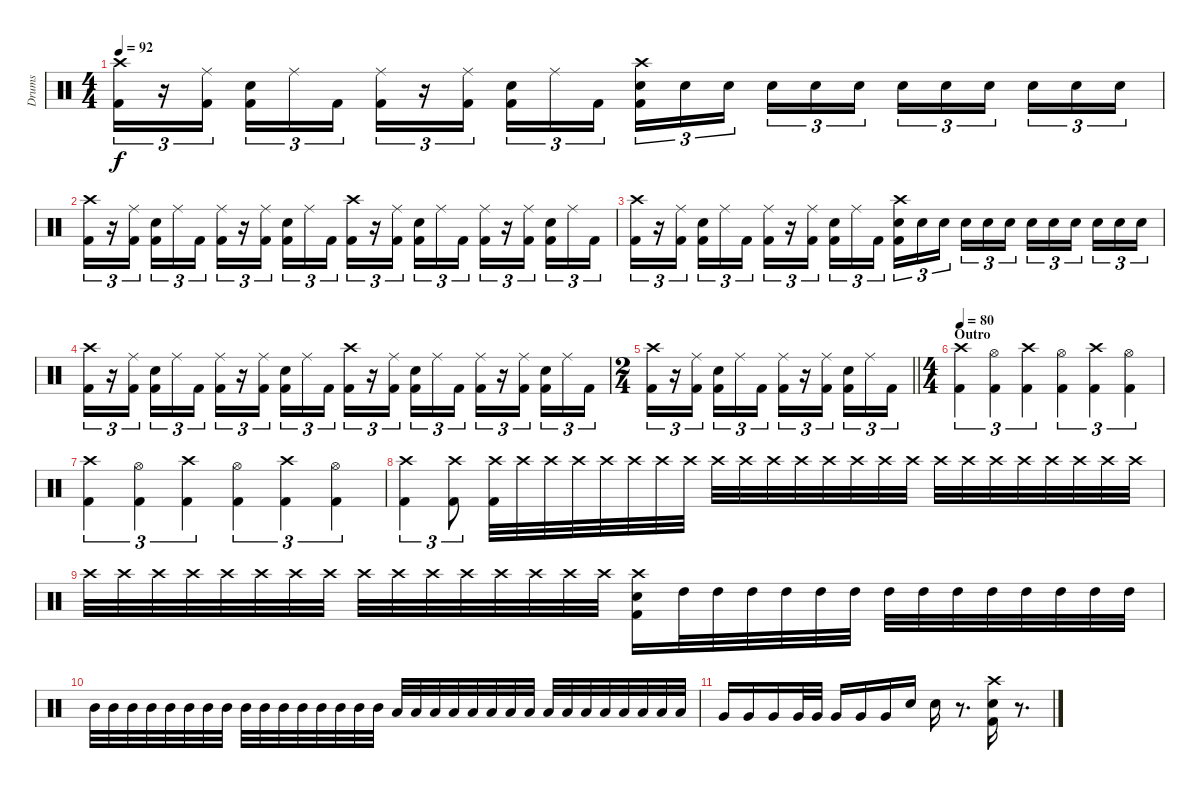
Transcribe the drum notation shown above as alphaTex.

\track ("Drums" "Drums") {instrument percussion}
\staff {score}
\articulation defaults
\ts (4 4)
\tempo 92
\clef neutral
\ks c
("Crash high (hit)" "Kick (hit) 2").16{tu (3 2) dy f} r.16{tu (3 2)} ("Ride (middle)" "Kick (hit) 2").16{tu (3 2) beam splitsecondary} ("Snare (hit) 2" "Kick (hit) 2").16{tu (3 2)} "Ride (middle)".16{tu (3 2)} "Kick (hit) 2".16{tu (3 2)} ("Ride (middle)" "Kick (hit) 2").16{tu (3 2)} r.16{tu (3 2)} ("Ride (middle)" "Kick (hit) 2").16{tu (3 2) beam splitsecondary} ("Snare (hit) 2" "Kick (hit) 2").16{tu (3 2)} "Ride (middle)".16{tu (3 2)} "Kick (hit) 2".16{tu (3 2)} ("Crash high (hit)" "Snare (hit) 2" "Kick (hit) 2").16{tu (3 2)} "Snare (hit) 2".16{tu (3 2)} "Snare (hit) 2".16{tu (3 2) beam splitsecondary} "Snare (hit) 2".16{tu (3 2)} "Snare (hit) 2".16{tu (3 2)} "Snare (hit) 2".16{tu (3 2)} "Snare (hit) 2".16{tu (3 2)} "Snare (hit) 2".16{tu (3 2)} "Snare (hit) 2".16{tu (3 2) beam splitsecondary} "Snare (hit) 2".16{tu (3 2)} "Snare (hit) 2".16{tu (3 2)} "Snare (hit) 2".16{tu (3 2)} |
("Crash high (hit)" "Kick (hit) 2").16{tu (3 2)} r.16{tu (3 2)} ("Ride (middle)" "Kick (hit) 2").16{tu (3 2) beam splitsecondary} ("Snare (hit) 2" "Kick (hit) 2").16{tu (3 2)} "Ride (middle)".16{tu (3 2)} "Kick (hit) 2".16{tu (3 2)} ("Ride (middle)" "Kick (hit) 2").16{tu (3 2)} r.16{tu (3 2)} ("Ride (middle)" "Kick (hit) 2").16{tu (3 2) beam splitsecondary} ("Snare (hit) 2" "Kick (hit) 2").16{tu (3 2)} "Ride (middle)".16{tu (3 2)} "Kick (hit) 2".16{tu (3 2)} ("Crash high (hit)" "Kick (hit) 2").16{tu (3 2)} r.16{tu (3 2)} ("Ride (middle)" "Kick (hit) 2").16{tu (3 2) beam splitsecondary} ("Snare (hit) 2" "Kick (hit) 2").16{tu (3 2)} "Ride (middle)".16{tu (3 2)} "Kick (hit) 2".16{tu (3 2)} ("Ride (middle)" "Kick (hit) 2").16{tu (3 2)} r.16{tu (3 2)} ("Ride (middle)" "Kick (hit) 2").16{tu (3 2) beam splitsecondary} ("Snare (hit) 2" "Kick (hit) 2").16{tu (3 2)} "Ride (middle)".16{tu (3 2)} "Kick (hit) 2".16{tu (3 2)} |
("Crash high (hit)" "Kick (hit) 2").16{tu (3 2)} r.16{tu (3 2)} ("Ride (middle)" "Kick (hit) 2").16{tu (3 2) beam splitsecondary} ("Snare (hit) 2" "Kick (hit) 2").16{tu (3 2)} "Ride (middle)".16{tu (3 2)} "Kick (hit) 2".16{tu (3 2)} ("Ride (middle)" "Kick (hit) 2").16{tu (3 2)} r.16{tu (3 2)} ("Ride (middle)" "Kick (hit) 2").16{tu (3 2) beam splitsecondary} ("Snare (hit) 2" "Kick (hit) 2").16{tu (3 2)} "Ride (middle)".16{tu (3 2)} "Kick (hit) 2".16{tu (3 2)} ("Crash high (hit)" "Snare (hit) 2" "Kick (hit) 2").16{tu (3 2)} "Snare (hit) 2".16{tu (3 2)} "Snare (hit) 2".16{tu (3 2) beam splitsecondary} "Snare (hit) 2".16{tu (3 2)} "Snare (hit) 2".16{tu (3 2)} "Snare (hit) 2".16{tu (3 2)} "Snare (hit) 2".16{tu (3 2)} "Snare (hit) 2".16{tu (3 2)} "Snare (hit) 2".16{tu (3 2) beam splitsecondary} "Snare (hit) 2".16{tu (3 2)} "Snare (hit) 2".16{tu (3 2)} "Snare (hit) 2".16{tu (3 2)} |
("Crash high (hit)" "Kick (hit) 2").16{tu (3 2)} r.16{tu (3 2)} ("Ride (middle)" "Kick (hit) 2").16{tu (3 2) beam splitsecondary} ("Snare (hit) 2" "Kick (hit) 2").16{tu (3 2)} "Ride (middle)".16{tu (3 2)} "Kick (hit) 2".16{tu (3 2)} ("Ride (middle)" "Kick (hit) 2").16{tu (3 2)} r.16{tu (3 2)} ("Ride (middle)" "Kick (hit) 2").16{tu (3 2) beam splitsecondary} ("Snare (hit) 2" "Kick (hit) 2").16{tu (3 2)} "Ride (middle)".16{tu (3 2)} "Kick (hit) 2".16{tu (3 2)} ("Crash high (hit)" "Kick (hit) 2").16{tu (3 2)} r.16{tu (3 2)} ("Ride (middle)" "Kick (hit) 2").16{tu (3 2) beam splitsecondary} ("Snare (hit) 2" "Kick (hit) 2").16{tu (3 2)} "Ride (middle)".16{tu (3 2)} "Kick (hit) 2".16{tu (3 2)} ("Ride (middle)" "Kick (hit) 2").16{tu (3 2)} r.16{tu (3 2)} ("Ride (middle)" "Kick (hit) 2").16{tu (3 2) beam splitsecondary} ("Snare (hit) 2" "Kick (hit) 2").16{tu (3 2)} "Ride (middle)".16{tu (3 2)} "Kick (hit) 2".16{tu (3 2)} |
\ts (2 4)
\barLineRight lightlight
("Crash high (hit)" "Kick (hit) 2").16{tu (3 2)} r.16{tu (3 2)} ("Ride (middle)" "Kick (hit) 2").16{tu (3 2) beam splitsecondary} ("Snare (hit) 2" "Kick (hit) 2").16{tu (3 2)} "Ride (middle)".16{tu (3 2)} "Kick (hit) 2".16{tu (3 2)} ("Ride (middle)" "Kick (hit) 2").16{tu (3 2)} r.16{tu (3 2)} ("Ride (middle)" "Kick (hit) 2").16{tu (3 2) beam splitsecondary} ("Snare (hit) 2" "Kick (hit) 2").16{tu (3 2)} "Ride (middle)".16{tu (3 2)} "Kick (hit) 2".16{tu (3 2)} |
\ts (4 4)
\section ("" "Outro")
\tempo 80
("Crash high (hit)" "Kick (hit) 2").4{tu (3 2)} ("Hi-Hat (open)" "Kick (hit) 2").4{tu (3 2)} ("Crash high (hit)" "Kick (hit) 2").4{tu (3 2)} ("Hi-Hat (open)" "Kick (hit) 2").4{tu (3 2)} ("Crash high (hit)" "Kick (hit) 2").4{tu (3 2)} ("Hi-Hat (open)" "Kick (hit) 2").4{tu (3 2)} |
("Crash high (hit)" "Kick (hit) 2").4{tu (3 2)} ("Hi-Hat (open)" "Kick (hit) 2").4{tu (3 2)} ("Crash high (hit)" "Kick (hit) 2").4{tu (3 2)} ("Hi-Hat (open)" "Kick (hit) 2").4{tu (3 2)} ("Crash high (hit)" "Kick (hit) 2").4{tu (3 2)} ("Hi-Hat (open)" "Kick (hit) 2").4{tu (3 2)} |
("Crash high (hit)" "Kick (hit) 2").4{tu (3 2)} ("Crash high (hit)" "Kick (hit) 2").8{tu (3 2)} ("Crash high (hit)" "Kick (hit) 2").32 "Crash high (hit)".32 "Crash high (hit)".32 "Crash high (hit)".32 "Crash high (hit)".32 "Crash high (hit)".32 "Crash high (hit)".32 "Crash high (hit)".32 "Crash high (hit)".32 "Crash high (hit)".32 "Crash high (hit)".32 "Crash high (hit)".32 "Crash high (hit)".32 "Crash high (hit)".32 "Crash high (hit)".32 "Crash high (hit)".32 "Crash high (hit)".32 "Crash high (hit)".32 "Crash high (hit)".32 "Crash high (hit)".32 "Crash high (hit)".32 "Crash high (hit)".32 "Crash high (hit)".32 "Crash high (hit)".32 |
"Crash high (hit)".32 "Crash high (hit)".32 "Crash high (hit)".32 "Crash high (hit)".32 "Crash high (hit)".32 "Crash high (hit)".32 "Crash high (hit)".32 "Crash high (hit)".32 "Crash high (hit)".32 "Crash high (hit)".32 "Crash high (hit)".32 "Crash high (hit)".32 "Crash high (hit)".32 "Crash high (hit)".32 "Crash high (hit)".32 "Crash high (hit)".32 ("Crash high (hit)" "Snare (hit) 2" "Kick (hit) 2").16 "High Tom (hit)".32 "High Tom (hit)".32 "High Tom (hit)".32 "High Tom (hit)".32 "High Tom (hit)".32 "High Tom (hit)".32 "High Tom (hit)".32 "High Tom (hit)".32 "High Tom (hit)".32 "High Tom (hit)".32 "High Tom (hit)".32 "High Tom (hit)".32 "High Tom (hit)".32 "High Tom (hit)".32 |
"Mid Tom (hit)".32 "Mid Tom (hit)".32 "Mid Tom (hit)".32 "Mid Tom (hit)".32 "Mid Tom (hit)".32 "Mid Tom (hit)".32 "Mid Tom (hit)".32 "Mid Tom (hit)".32 "Mid Tom (hit)".32 "Mid Tom (hit)".32 "Mid Tom (hit)".32 "Mid Tom (hit)".32 "Mid Tom (hit)".32 "Mid Tom (hit)".32 "Mid Tom (hit)".32 "Mid Tom (hit)".32 "Low Tom (hit)".32 "Low Tom (hit)".32 "Low Tom (hit)".32 "Low Tom (hit)".32 "Low Tom (hit)".32 "Low Tom (hit)".32 "Low Tom (hit)".32 "Low Tom (hit)".32 "Low Tom (hit)".32 "Low Tom (hit)".32 "Low Tom (hit)".32 "Low Tom (hit)".32 "Low Tom (hit)".32 "Low Tom (hit)".32 "Low Tom (hit)".32 "Low Tom (hit)".32 |
"Very Low Tom (hit)".16 "Very Low Tom (hit)".16 "Very Low Tom (hit)".16 "Very Low Tom (hit)".32 "Very Low Tom (hit)".32 "Very Low Tom (hit)".16 "Very Low Tom (hit)".16 "Very Low Tom (hit)".16 "Snare (hit) 2".16 "Snare (hit) 2".16 r.8{d} ("Crash high (hit)" "Snare (hit) 2" "Kick (hit) 2").16 r.8{d}
